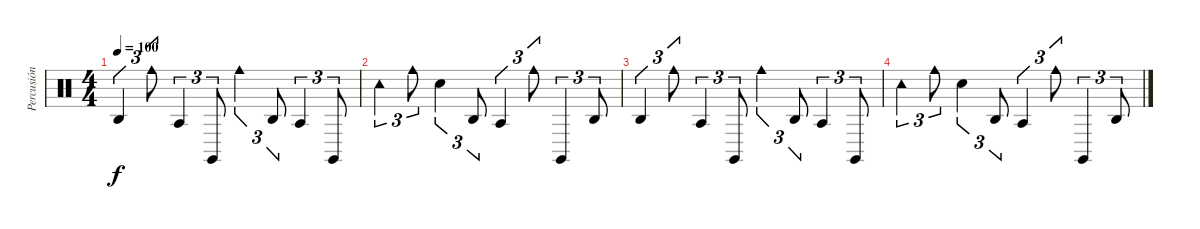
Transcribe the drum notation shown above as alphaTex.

\track ("Percusión" "Percusión") {instrument percussion}
\staff {score}
\articulation defaults
\ts (4 4)
\tempo 100
\clef neutral
\ks c "Agogo high (hit)".4{tu (3 2) dy f} "Cowbell medium (hit)".8{tu (3 2)} "Agogo tow (hit)".4{tu (3 2)} "Claves (hit)".8{tu (3 2)} "Cowbell medium (hit)".4{tu (3 2)} "Agogo high (hit)".8{tu (3 2)} "Agogo tow (hit)".4{tu (3 2)} "Claves (hit)".8{tu (3 2)}
|
"Tambourine (hit)".4{tu (3 2)} "Cowbell medium (hit)".8{tu (3 2) volume 0} "Electric Snare (hit)".4{tu (3 2)} "Agogo high (hit)".8{tu (3 2)} "Agogo tow (hit)".4{tu (3 2)} "Cowbell medium (hit)".8{tu (3 2)} "Claves (hit)".4{tu (3 2)} "Agogo high (hit)".8{tu (3 2)} |
"Agogo high (hit)".4{tu (3 2)} "Cowbell medium (hit)".8{tu (3 2)} "Agogo tow (hit)".4{tu (3 2)} "Claves (hit)".8{tu (3 2)} "Cowbell medium (hit)".4{tu (3 2)} "Agogo high (hit)".8{tu (3 2)} "Agogo tow (hit)".4{tu (3 2)} "Claves (hit)".8{tu (3 2)} |
"Tambourine (hit)".4{tu (3 2)} "Cowbell medium (hit)".8{tu (3 2)} "Electric Snare (hit)".4{tu (3 2)} "Agogo high (hit)".8{tu (3 2)} "Agogo tow (hit)".4{tu (3 2)} "Cowbell medium (hit)".8{tu (3 2)} "Claves (hit)".4{tu (3 2)} "Agogo high (hit)".8{tu (3 2)}
